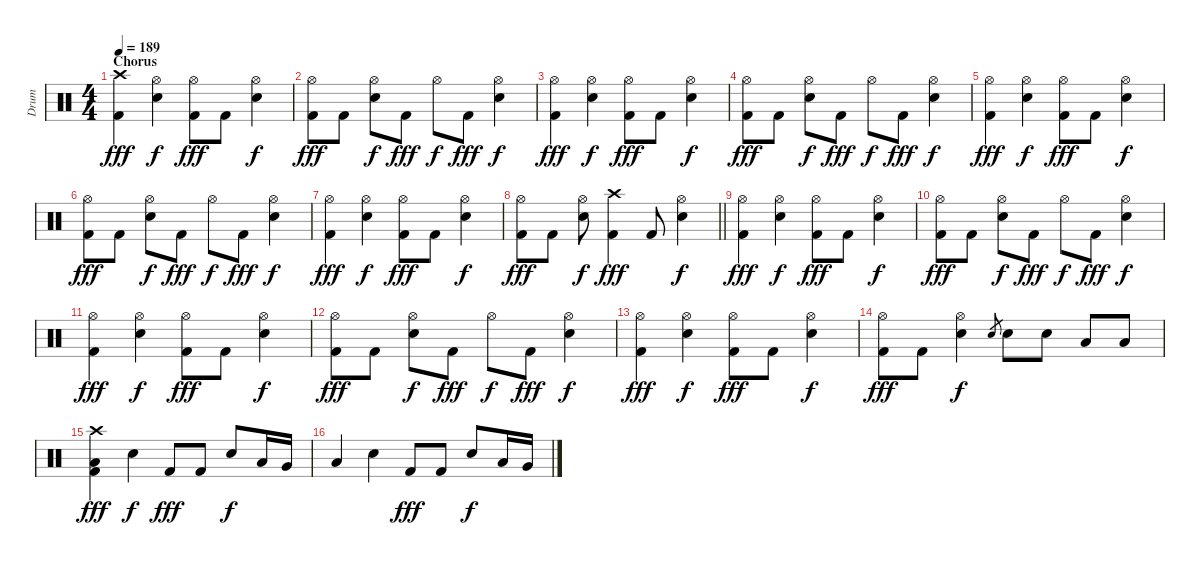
\track ("Drum" "Drum") {instrument percussion}
\staff {score}
\articulation defaults
\ts (4 4)
\section ("" "Chorus")
\tempo 189
\clef neutral
\ks c
("Crash high (hit)" "Kick (hit) 2").4{dy fff} ("Hi-Hat (open)" "Electric Snare (hit)").4{dy f} ("Hi-Hat (open)" "Kick (hit) 2").8{dy fff} "Kick (hit) 2".8 ("Hi-Hat (open)" "Electric Snare (hit)").4{dy f} |
("Hi-Hat (open)" "Kick (hit) 2").8{dy fff} "Kick (hit) 2".8 ("Hi-Hat (open)" "Electric Snare (hit)").8{dy f} "Kick (hit) 2".8{dy fff} "Hi-Hat (open)".8{dy f} "Kick (hit) 2".8{dy fff} ("Hi-Hat (open)" "Electric Snare (hit)").4{dy f} |
("Hi-Hat (open)" "Kick (hit) 2").4{dy fff} ("Hi-Hat (open)" "Electric Snare (hit)").4{dy f} ("Hi-Hat (open)" "Kick (hit) 2").8{dy fff} "Kick (hit) 2".8 ("Hi-Hat (open)" "Electric Snare (hit)").4{dy f} |
("Hi-Hat (open)" "Kick (hit) 2").8{dy fff} "Kick (hit) 2".8 ("Hi-Hat (open)" "Electric Snare (hit)").8{dy f} "Kick (hit) 2".8{dy fff} "Hi-Hat (open)".8{dy f} "Kick (hit) 2".8{dy fff} ("Hi-Hat (open)" "Electric Snare (hit)").4{dy f} |
("Hi-Hat (open)" "Kick (hit) 2").4{dy fff} ("Hi-Hat (open)" "Electric Snare (hit)").4{dy f} ("Hi-Hat (open)" "Kick (hit) 2").8{dy fff} "Kick (hit) 2".8 ("Hi-Hat (open)" "Electric Snare (hit)").4{dy f} |
("Hi-Hat (open)" "Kick (hit) 2").8{dy fff} "Kick (hit) 2".8 ("Hi-Hat (open)" "Electric Snare (hit)").8{dy f} "Kick (hit) 2".8{dy fff} "Hi-Hat (open)".8{dy f} "Kick (hit) 2".8{dy fff} ("Hi-Hat (open)" "Electric Snare (hit)").4{dy f} |
("Hi-Hat (open)" "Kick (hit) 2").4{dy fff} ("Hi-Hat (open)" "Electric Snare (hit)").4{dy f} ("Hi-Hat (open)" "Kick (hit) 2").8{dy fff} "Kick (hit) 2".8 ("Hi-Hat (open)" "Electric Snare (hit)").4{dy f} |
\barLineRight lightlight
("Hi-Hat (open)" "Kick (hit) 2").8{dy fff} "Kick (hit) 2".8 ("Hi-Hat (open)" "Electric Snare (hit)").8{dy f} ("Crash high (hit)" "Kick (hit) 2").4{dy fff} "Kick (hit) 2".8 ("Hi-Hat (open)" "Electric Snare (hit)").4{dy f} |
("Hi-Hat (open)" "Kick (hit) 2").4{dy fff} ("Hi-Hat (open)" "Electric Snare (hit)").4{dy f} ("Hi-Hat (open)" "Kick (hit) 2").8{dy fff} "Kick (hit) 2".8 ("Hi-Hat (open)" "Electric Snare (hit)").4{dy f} |
("Hi-Hat (open)" "Kick (hit) 2").8{dy fff} "Kick (hit) 2".8 ("Hi-Hat (open)" "Electric Snare (hit)").8{dy f} "Kick (hit) 2".8{dy fff} "Hi-Hat (open)".8{dy f} "Kick (hit) 2".8{dy fff} ("Hi-Hat (open)" "Electric Snare (hit)").4{dy f} |
("Hi-Hat (open)" "Kick (hit) 2").4{dy fff} ("Hi-Hat (open)" "Electric Snare (hit)").4{dy f} ("Hi-Hat (open)" "Kick (hit) 2").8{dy fff} "Kick (hit) 2".8 ("Hi-Hat (open)" "Electric Snare (hit)").4{dy f} |
("Hi-Hat (open)" "Kick (hit) 2").8{dy fff} "Kick (hit) 2".8 ("Hi-Hat (open)" "Electric Snare (hit)").8{dy f} "Kick (hit) 2".8{dy fff} "Hi-Hat (open)".8{dy f} "Kick (hit) 2".8{dy fff} ("Hi-Hat (open)" "Electric Snare (hit)").4{dy f} |
("Hi-Hat (open)" "Kick (hit) 2").4{dy fff} ("Hi-Hat (open)" "Electric Snare (hit)").4{dy f} ("Hi-Hat (open)" "Kick (hit) 2").8{dy fff} "Kick (hit) 2".8 ("Hi-Hat (open)" "Electric Snare (hit)").4{dy f} |
("Hi-Hat (open)" "Kick (hit) 2").8{dy fff} "Kick (hit) 2".8 ("Hi-Hat (open)" "Electric Snare (hit)").4{dy f} "Electric Snare (hit)".8{gr} "Electric Snare (hit)".8 "Electric Snare (hit)".8 "Low Tom (hit)".8 "Low Tom (hit)".8 |
("Crash high (hit)" "Low Floor Tom (hit)" "Kick (hit) 2").4{dy fff} "Electric Snare (hit)".4{dy f} "Kick (hit) 2".8{dy fff} "Kick (hit) 2".8 "Electric Snare (hit)".8{dy f} "Low Tom (hit)".16 "Very Low Tom (hit)".16 |
"Low Floor Tom (hit)".4 "Electric Snare (hit)".4 "Kick (hit) 2".8{dy fff} "Kick (hit) 2".8 "Electric Snare (hit)".8{dy f} "Low Tom (hit)".16 "Very Low Tom (hit)".16
